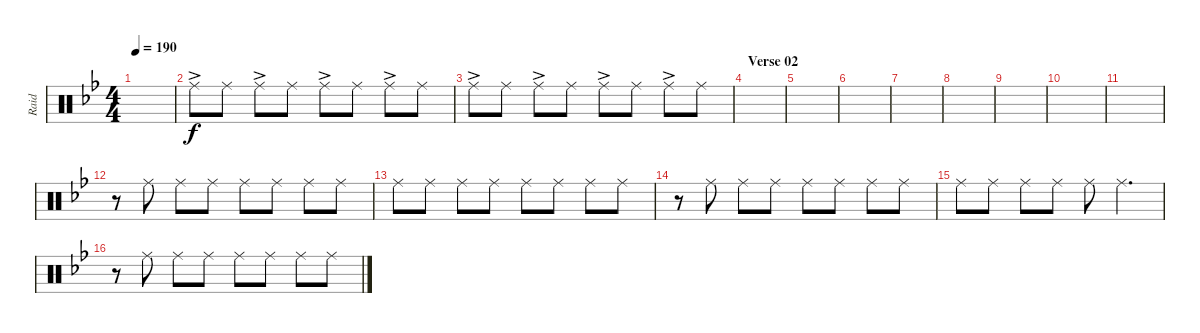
\track ("Raid" "Raid") {instrument percussion}
\staff {score}
\articulation defaults
\ts (4 4)
\tempo 190
\clef neutral
\ks bb
|
"Ride (middle)"{ac}.8 "Ride (middle)".8 "Ride (middle)"{ac}.8 "Ride (middle)".8 "Ride (middle)"{ac}.8 "Ride (middle)".8 "Ride (middle)"{ac}.8 "Ride (middle)".8 |
"Ride (middle)"{ac}.8 "Ride (middle)".8 "Ride (middle)"{ac}.8 "Ride (middle)".8 "Ride (middle)"{ac}.8 "Ride (middle)".8 "Ride (middle)"{ac}.8 "Ride (middle)".8 |
\section ("" "Verse 02")
|
|
|
|
|
|
|
|
r.8 "Ride (middle)".8 "Ride (middle)".8 "Ride (middle)".8 "Ride (middle)".8 "Ride (middle)".8 "Ride (middle)".8 "Ride (middle)".8 |
"Ride (middle)".8 "Ride (middle)".8 "Ride (middle)".8 "Ride (middle)".8 "Ride (middle)".8 "Ride (middle)".8 "Ride (middle)".8 "Ride (middle)".8 |
r.8 "Ride (middle)".8 "Ride (middle)".8 "Ride (middle)".8 "Ride (middle)".8 "Ride (middle)".8 "Ride (middle)".8 "Ride (middle)".8 |
"Ride (middle)".8 "Ride (middle)".8 "Ride (middle)".8 "Ride (middle)".8 "Ride (middle)".8 "Ride (middle)".4{d} |
r.8 "Ride (middle)".8 "Ride (middle)".8 "Ride (middle)".8 "Ride (middle)".8 "Ride (middle)".8 "Ride (middle)".8 "Ride (middle)".8
